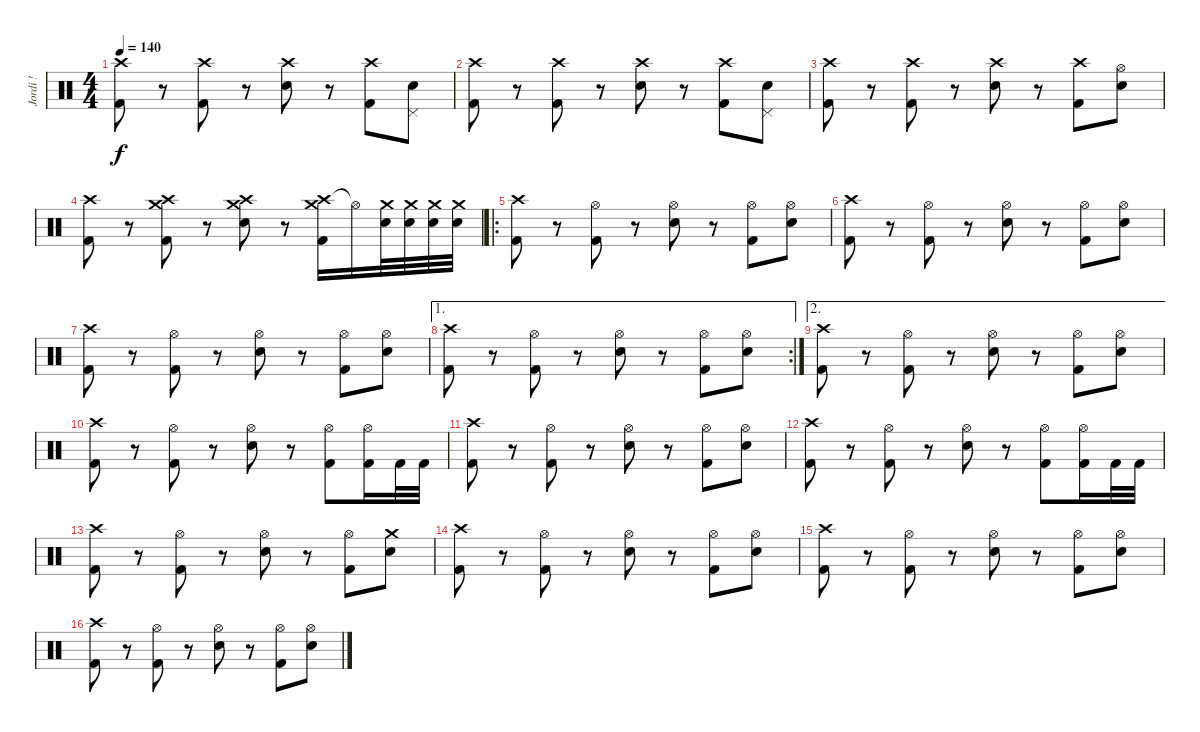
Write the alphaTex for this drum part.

\track ("Jordi !" "Jordi !") {instrument percussion}
\staff {score}
\articulation defaults
\ts (4 4)
\tempo 140
\clef neutral
\ks c
("Crash high (hit)" "Kick (hit) 2").8{dy f} r.8 ("Crash high (hit)" "Kick (hit) 2").8 r.8 ("Crash high (hit)" "Electric Snare (hit)").8 r.8 ("Crash high (hit)" "Kick (hit) 2").8 ("Pedal Hi-Hat (hit)" "Electric Snare (hit)").8 |
("Crash high (hit)" "Kick (hit) 2").8 r.8 ("Crash high (hit)" "Kick (hit) 2").8 r.8 ("Crash high (hit)" "Electric Snare (hit)").8 r.8 ("Crash high (hit)" "Kick (hit) 2").8 ("Pedal Hi-Hat (hit)" "Electric Snare (hit)").8 |
("Crash high (hit)" "Kick (hit) 2").8 r.8 ("Crash high (hit)" "Kick (hit) 2").8 r.8 ("Crash high (hit)" "Electric Snare (hit)").8 r.8 ("Crash high (hit)" "Kick (hit) 2").8 ("Hi-Hat (open)" "Electric Snare (hit)").8 |
("Crash high (hit)" "Kick (hit) 2").8 r.8 ("Crash high (hit)" "Crash medium (hit)" "Kick (hit) 2").8 r.8 ("Crash high (hit)" "Crash medium (hit)" "Electric Snare (hit)").8 r.8 ("Crash high (hit)" "Crash medium (hit)" "Kick (hit) 2").16 "Hi-Hat (open)"{t}.16 ("Crash medium (hit)" "Electric Snare (hit)").32 ("Crash medium (hit)" "Electric Snare (hit)").32 ("Crash medium (hit)" "Electric Snare (hit)").32 ("Crash medium (hit)" "Electric Snare (hit)").32 |
\ro
("Crash high (hit)" "Kick (hit) 2").8 r.8 ("Hi-Hat (open)" "Kick (hit) 2").8 r.8 ("Hi-Hat (open)" "Electric Snare (hit)").8 r.8 ("Hi-Hat (open)" "Kick (hit) 2").8 ("Hi-Hat (open)" "Electric Snare (hit)").8 |
("Crash high (hit)" "Kick (hit) 2").8 r.8 ("Hi-Hat (open)" "Kick (hit) 2").8 r.8 ("Hi-Hat (open)" "Electric Snare (hit)").8 r.8 ("Hi-Hat (open)" "Kick (hit) 2").8 ("Hi-Hat (open)" "Electric Snare (hit)").8 |
("Crash high (hit)" "Kick (hit) 2").8 r.8 ("Hi-Hat (open)" "Kick (hit) 2").8 r.8 ("Hi-Hat (open)" "Electric Snare (hit)").8 r.8 ("Hi-Hat (open)" "Kick (hit) 2").8 ("Hi-Hat (open)" "Electric Snare (hit)").8 |
\ae 1
\rc 2
("Crash high (hit)" "Kick (hit) 2").8 r.8 ("Hi-Hat (open)" "Kick (hit) 2").8 r.8 ("Hi-Hat (open)" "Electric Snare (hit)").8 r.8 ("Hi-Hat (open)" "Kick (hit) 2").8 ("Hi-Hat (open)" "Electric Snare (hit)").8 |
\ae 2
("Crash high (hit)" "Kick (hit) 2").8 r.8 ("Hi-Hat (open)" "Kick (hit) 2").8 r.8 ("Hi-Hat (open)" "Electric Snare (hit)").8 r.8 ("Hi-Hat (open)" "Kick (hit) 2").8 ("Hi-Hat (open)" "Electric Snare (hit)").8 |
("Crash high (hit)" "Kick (hit) 2").8 r.8 ("Hi-Hat (open)" "Kick (hit) 2").8 r.8 ("Hi-Hat (open)" "Electric Snare (hit)").8 r.8 ("Hi-Hat (open)" "Kick (hit) 2").8 ("Hi-Hat (open)" "Kick (hit) 2").16 "Kick (hit) 2".32 "Kick (hit) 2".32 |
("Crash high (hit)" "Kick (hit) 2").8 r.8 ("Hi-Hat (open)" "Kick (hit) 2").8 r.8 ("Hi-Hat (open)" "Electric Snare (hit)").8 r.8 ("Hi-Hat (open)" "Kick (hit) 2").8 ("Hi-Hat (open)" "Electric Snare (hit)").8 |
("Crash high (hit)" "Kick (hit) 2").8 r.8 ("Hi-Hat (open)" "Kick (hit) 2").8 r.8 ("Hi-Hat (open)" "Electric Snare (hit)").8 r.8 ("Hi-Hat (open)" "Kick (hit) 2").8 ("Hi-Hat (open)" "Kick (hit) 2").16 "Kick (hit) 2".32 "Kick (hit) 2".32 |
("Crash high (hit)" "Kick (hit) 2").8 r.8 ("Hi-Hat (open)" "Kick (hit) 2").8 r.8 ("Hi-Hat (open)" "Electric Snare (hit)").8 r.8 ("Hi-Hat (open)" "Kick (hit) 2").8 ("Crash medium (hit)" "Electric Snare (hit)").8 |
("Crash high (hit)" "Kick (hit) 2").8 r.8 ("Hi-Hat (open)" "Kick (hit) 2").8 r.8 ("Hi-Hat (open)" "Electric Snare (hit)").8 r.8 ("Hi-Hat (open)" "Kick (hit) 2").8 ("Hi-Hat (open)" "Electric Snare (hit)").8 |
("Crash high (hit)" "Kick (hit) 2").8 r.8 ("Hi-Hat (open)" "Kick (hit) 2").8 r.8 ("Hi-Hat (open)" "Electric Snare (hit)").8 r.8 ("Hi-Hat (open)" "Kick (hit) 2").8 ("Hi-Hat (open)" "Electric Snare (hit)").8 |
("Crash high (hit)" "Kick (hit) 2").8 r.8 ("Hi-Hat (open)" "Kick (hit) 2").8 r.8 ("Hi-Hat (open)" "Electric Snare (hit)").8 r.8 ("Hi-Hat (open)" "Kick (hit) 2").8 ("Hi-Hat (open)" "Electric Snare (hit)").8
